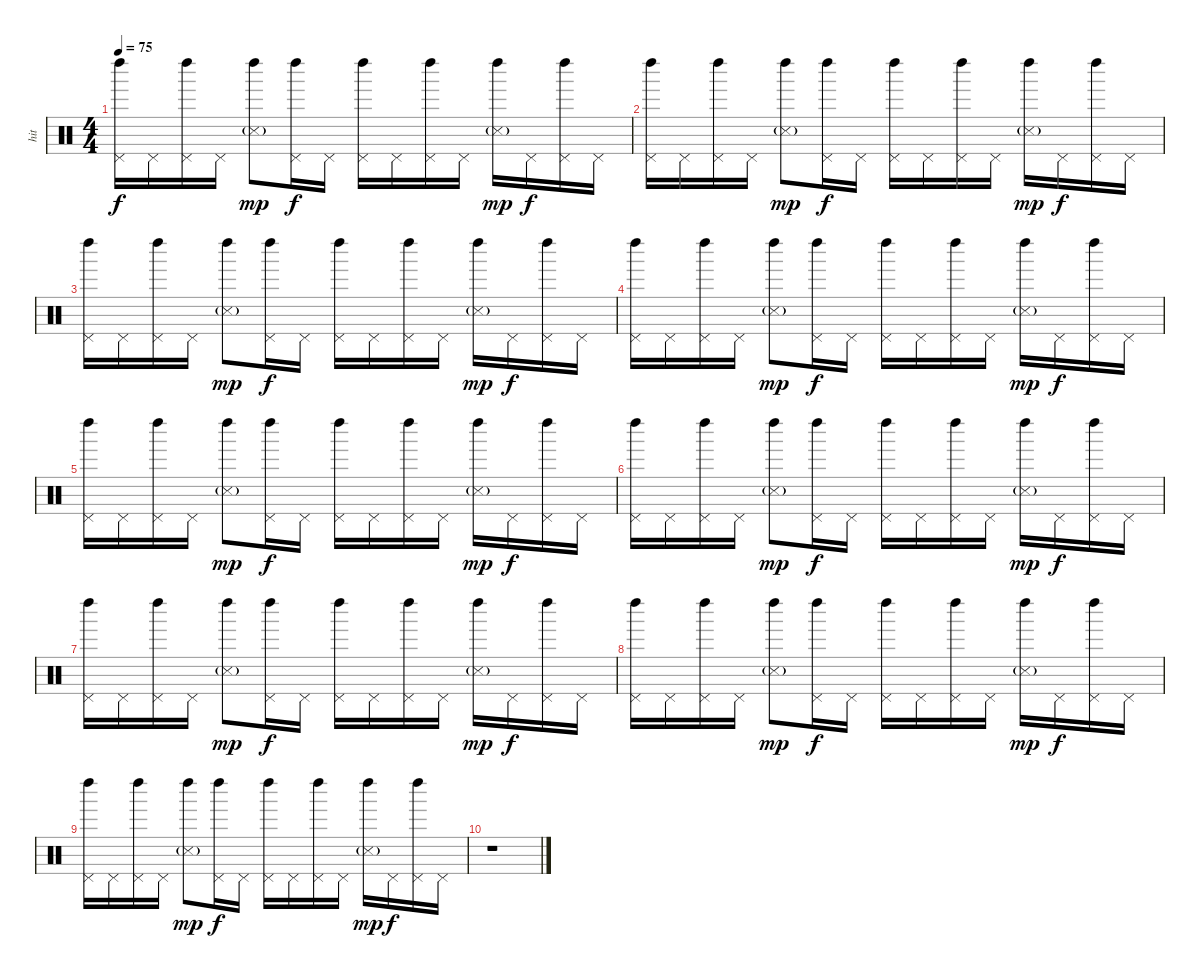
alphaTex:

\track ("hit" "hit") {instrument percussion}
\staff {score}
\articulation defaults
\ts (4 4)
\tempo 75
\clef neutral
\ks c
("Pedal Hi-Hat (hit)" "Left Maraca (hit)").16{dy f} "Pedal Hi-Hat (hit)".16 ("Pedal Hi-Hat (hit)" "Left Maraca (hit)").16 "Pedal Hi-Hat (hit)".16 ("Metronome (hit)"{g} "Left Maraca (hit)").8{dy mp} ("Pedal Hi-Hat (hit)" "Left Maraca (hit)").16{dy f} "Pedal Hi-Hat (hit)".16 ("Pedal Hi-Hat (hit)" "Left Maraca (hit)").16 "Pedal Hi-Hat (hit)".16 ("Pedal Hi-Hat (hit)" "Left Maraca (hit)").16 "Pedal Hi-Hat (hit)".16 ("Metronome (hit)"{g} "Left Maraca (hit)").16{dy mp} "Pedal Hi-Hat (hit)".16{dy f} ("Pedal Hi-Hat (hit)" "Left Maraca (hit)").16 "Pedal Hi-Hat (hit)".16 |
("Pedal Hi-Hat (hit)" "Left Maraca (hit)").16 "Pedal Hi-Hat (hit)".16 ("Pedal Hi-Hat (hit)" "Left Maraca (hit)").16 "Pedal Hi-Hat (hit)".16 ("Metronome (hit)"{g} "Left Maraca (hit)").8{dy mp} ("Pedal Hi-Hat (hit)" "Left Maraca (hit)").16{dy f} "Pedal Hi-Hat (hit)".16 ("Pedal Hi-Hat (hit)" "Left Maraca (hit)").16 "Pedal Hi-Hat (hit)".16 ("Pedal Hi-Hat (hit)" "Left Maraca (hit)").16 "Pedal Hi-Hat (hit)".16 ("Metronome (hit)"{g} "Left Maraca (hit)").16{dy mp} "Pedal Hi-Hat (hit)".16{dy f} ("Pedal Hi-Hat (hit)" "Left Maraca (hit)").16 "Pedal Hi-Hat (hit)".16 |
("Pedal Hi-Hat (hit)" "Left Maraca (hit)").16 "Pedal Hi-Hat (hit)".16 ("Pedal Hi-Hat (hit)" "Left Maraca (hit)").16 "Pedal Hi-Hat (hit)".16 ("Metronome (hit)"{g} "Left Maraca (hit)").8{dy mp} ("Pedal Hi-Hat (hit)" "Left Maraca (hit)").16{dy f} "Pedal Hi-Hat (hit)".16 ("Pedal Hi-Hat (hit)" "Left Maraca (hit)").16 "Pedal Hi-Hat (hit)".16 ("Pedal Hi-Hat (hit)" "Left Maraca (hit)").16 "Pedal Hi-Hat (hit)".16 ("Metronome (hit)"{g} "Left Maraca (hit)").16{dy mp} "Pedal Hi-Hat (hit)".16{dy f} ("Pedal Hi-Hat (hit)" "Left Maraca (hit)").16 "Pedal Hi-Hat (hit)".16 |
("Pedal Hi-Hat (hit)" "Left Maraca (hit)").16 "Pedal Hi-Hat (hit)".16 ("Pedal Hi-Hat (hit)" "Left Maraca (hit)").16 "Pedal Hi-Hat (hit)".16 ("Metronome (hit)"{g} "Left Maraca (hit)").8{dy mp} ("Pedal Hi-Hat (hit)" "Left Maraca (hit)").16{dy f} "Pedal Hi-Hat (hit)".16 ("Pedal Hi-Hat (hit)" "Left Maraca (hit)").16 "Pedal Hi-Hat (hit)".16 ("Pedal Hi-Hat (hit)" "Left Maraca (hit)").16 "Pedal Hi-Hat (hit)".16 ("Metronome (hit)"{g} "Left Maraca (hit)").16{dy mp} "Pedal Hi-Hat (hit)".16{dy f} ("Pedal Hi-Hat (hit)" "Left Maraca (hit)").16 "Pedal Hi-Hat (hit)".16 |
("Pedal Hi-Hat (hit)" "Left Maraca (hit)").16 "Pedal Hi-Hat (hit)".16 ("Pedal Hi-Hat (hit)" "Left Maraca (hit)").16 "Pedal Hi-Hat (hit)".16 ("Metronome (hit)"{g} "Left Maraca (hit)").8{dy mp} ("Pedal Hi-Hat (hit)" "Left Maraca (hit)").16{dy f} "Pedal Hi-Hat (hit)".16 ("Pedal Hi-Hat (hit)" "Left Maraca (hit)").16 "Pedal Hi-Hat (hit)".16 ("Pedal Hi-Hat (hit)" "Left Maraca (hit)").16 "Pedal Hi-Hat (hit)".16 ("Metronome (hit)"{g} "Left Maraca (hit)").16{dy mp} "Pedal Hi-Hat (hit)".16{dy f} ("Pedal Hi-Hat (hit)" "Left Maraca (hit)").16 "Pedal Hi-Hat (hit)".16 |
("Pedal Hi-Hat (hit)" "Left Maraca (hit)").16 "Pedal Hi-Hat (hit)".16 ("Pedal Hi-Hat (hit)" "Left Maraca (hit)").16 "Pedal Hi-Hat (hit)".16 ("Metronome (hit)"{g} "Left Maraca (hit)").8{dy mp} ("Pedal Hi-Hat (hit)" "Left Maraca (hit)").16{dy f} "Pedal Hi-Hat (hit)".16 ("Pedal Hi-Hat (hit)" "Left Maraca (hit)").16 "Pedal Hi-Hat (hit)".16 ("Pedal Hi-Hat (hit)" "Left Maraca (hit)").16 "Pedal Hi-Hat (hit)".16 ("Metronome (hit)"{g} "Left Maraca (hit)").16{dy mp} "Pedal Hi-Hat (hit)".16{dy f} ("Pedal Hi-Hat (hit)" "Left Maraca (hit)").16 "Pedal Hi-Hat (hit)".16 |
("Pedal Hi-Hat (hit)" "Left Maraca (hit)").16 "Pedal Hi-Hat (hit)".16 ("Pedal Hi-Hat (hit)" "Left Maraca (hit)").16 "Pedal Hi-Hat (hit)".16 ("Metronome (hit)"{g} "Left Maraca (hit)").8{dy mp} ("Pedal Hi-Hat (hit)" "Left Maraca (hit)").16{dy f} "Pedal Hi-Hat (hit)".16 ("Pedal Hi-Hat (hit)" "Left Maraca (hit)").16 "Pedal Hi-Hat (hit)".16 ("Pedal Hi-Hat (hit)" "Left Maraca (hit)").16 "Pedal Hi-Hat (hit)".16 ("Metronome (hit)"{g} "Left Maraca (hit)").16{dy mp} "Pedal Hi-Hat (hit)".16{dy f} ("Pedal Hi-Hat (hit)" "Left Maraca (hit)").16 "Pedal Hi-Hat (hit)".16 |
("Pedal Hi-Hat (hit)" "Left Maraca (hit)").16 "Pedal Hi-Hat (hit)".16 ("Pedal Hi-Hat (hit)" "Left Maraca (hit)").16 "Pedal Hi-Hat (hit)".16 ("Metronome (hit)"{g} "Left Maraca (hit)").8{dy mp} ("Pedal Hi-Hat (hit)" "Left Maraca (hit)").16{dy f} "Pedal Hi-Hat (hit)".16 ("Pedal Hi-Hat (hit)" "Left Maraca (hit)").16 "Pedal Hi-Hat (hit)".16 ("Pedal Hi-Hat (hit)" "Left Maraca (hit)").16 "Pedal Hi-Hat (hit)".16 ("Metronome (hit)"{g} "Left Maraca (hit)").16{dy mp} "Pedal Hi-Hat (hit)".16{dy f} ("Pedal Hi-Hat (hit)" "Left Maraca (hit)").16 "Pedal Hi-Hat (hit)".16 |
("Pedal Hi-Hat (hit)" "Left Maraca (hit)").16 "Pedal Hi-Hat (hit)".16 ("Pedal Hi-Hat (hit)" "Left Maraca (hit)").16 "Pedal Hi-Hat (hit)".16 ("Metronome (hit)"{g} "Left Maraca (hit)").8{dy mp} ("Pedal Hi-Hat (hit)" "Left Maraca (hit)").16{dy f} "Pedal Hi-Hat (hit)".16 ("Pedal Hi-Hat (hit)" "Left Maraca (hit)").16 "Pedal Hi-Hat (hit)".16 ("Pedal Hi-Hat (hit)" "Left Maraca (hit)").16 "Pedal Hi-Hat (hit)".16 ("Metronome (hit)"{g} "Left Maraca (hit)").16{dy mp} "Pedal Hi-Hat (hit)".16{dy f} ("Pedal Hi-Hat (hit)" "Left Maraca (hit)").16 "Pedal Hi-Hat (hit)".16 |
r.1
